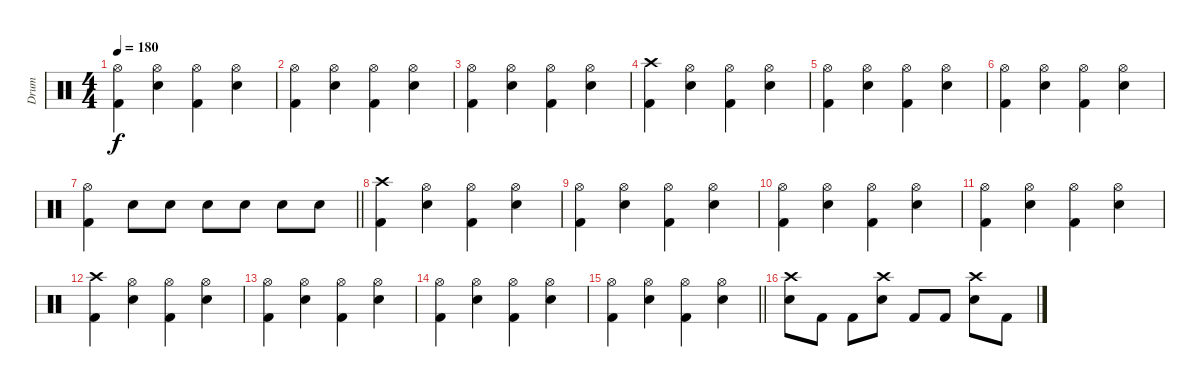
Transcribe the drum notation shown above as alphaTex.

\track ("Drum" "Drum") {instrument percussion}
\staff {score}
\articulation defaults
\ts (4 4)
\tempo 180
\clef neutral
\ks c
("Hi-Hat (open)" "Kick (hit) 2").4{dy f} ("Hi-Hat (open)" "Electric Snare (hit)").4 ("Hi-Hat (open)" "Kick (hit) 2").4 ("Hi-Hat (open)" "Electric Snare (hit)").4 |
("Hi-Hat (open)" "Kick (hit) 2").4 ("Hi-Hat (open)" "Electric Snare (hit)").4 ("Hi-Hat (open)" "Kick (hit) 2").4 ("Hi-Hat (open)" "Electric Snare (hit)").4 |
("Hi-Hat (open)" "Kick (hit) 2").4 ("Hi-Hat (open)" "Electric Snare (hit)").4 ("Hi-Hat (open)" "Kick (hit) 2").4 ("Hi-Hat (open)" "Electric Snare (hit)").4 |
("Crash high (hit)" "Kick (hit) 2").4 ("Hi-Hat (open)" "Electric Snare (hit)").4 ("Hi-Hat (open)" "Kick (hit) 2").4 ("Hi-Hat (open)" "Electric Snare (hit)").4 |
("Hi-Hat (open)" "Kick (hit) 2").4 ("Hi-Hat (open)" "Electric Snare (hit)").4 ("Hi-Hat (open)" "Kick (hit) 2").4 ("Hi-Hat (open)" "Electric Snare (hit)").4 |
("Hi-Hat (open)" "Kick (hit) 2").4 ("Hi-Hat (open)" "Electric Snare (hit)").4 ("Hi-Hat (open)" "Kick (hit) 2").4 ("Hi-Hat (open)" "Electric Snare (hit)").4 |
\barLineRight lightlight
("Hi-Hat (open)" "Kick (hit) 2").4 "Electric Snare (hit)".8 "Electric Snare (hit)".8 "Electric Snare (hit)".8 "Electric Snare (hit)".8 "Electric Snare (hit)".8 "Electric Snare (hit)".8 |
("Crash high (hit)" "Kick (hit) 2").4 ("Hi-Hat (open)" "Electric Snare (hit)").4 ("Hi-Hat (open)" "Kick (hit) 2").4 ("Hi-Hat (open)" "Electric Snare (hit)").4 |
("Hi-Hat (open)" "Kick (hit) 2").4 ("Hi-Hat (open)" "Electric Snare (hit)").4 ("Hi-Hat (open)" "Kick (hit) 2").4 ("Hi-Hat (open)" "Electric Snare (hit)").4 |
("Hi-Hat (open)" "Kick (hit) 2").4 ("Hi-Hat (open)" "Electric Snare (hit)").4 ("Hi-Hat (open)" "Kick (hit) 2").4 ("Hi-Hat (open)" "Electric Snare (hit)").4 |
("Hi-Hat (open)" "Kick (hit) 2").4 ("Hi-Hat (open)" "Electric Snare (hit)").4 ("Hi-Hat (open)" "Kick (hit) 2").4 ("Hi-Hat (open)" "Electric Snare (hit)").4 |
("Crash high (hit)" "Kick (hit) 2").4 ("Hi-Hat (open)" "Electric Snare (hit)").4 ("Hi-Hat (open)" "Kick (hit) 2").4 ("Hi-Hat (open)" "Electric Snare (hit)").4 |
("Hi-Hat (open)" "Kick (hit) 2").4 ("Hi-Hat (open)" "Electric Snare (hit)").4 ("Hi-Hat (open)" "Kick (hit) 2").4 ("Hi-Hat (open)" "Electric Snare (hit)").4 |
("Hi-Hat (open)" "Kick (hit) 2").4 ("Hi-Hat (open)" "Electric Snare (hit)").4 ("Hi-Hat (open)" "Kick (hit) 2").4 ("Hi-Hat (open)" "Electric Snare (hit)").4 |
\barLineRight lightlight
("Hi-Hat (open)" "Kick (hit) 2").4 ("Hi-Hat (open)" "Electric Snare (hit)").4 ("Hi-Hat (open)" "Kick (hit) 2").4 ("Hi-Hat (open)" "Electric Snare (hit)").4 |
("Crash high (hit)" "Electric Snare (hit)").8 "Kick (hit) 2".8 "Kick (hit) 2".8 ("Crash high (hit)" "Electric Snare (hit)").8 "Kick (hit) 2".8 "Kick (hit) 2".8 ("Crash high (hit)" "Electric Snare (hit)").8 "Kick (hit) 2".8
